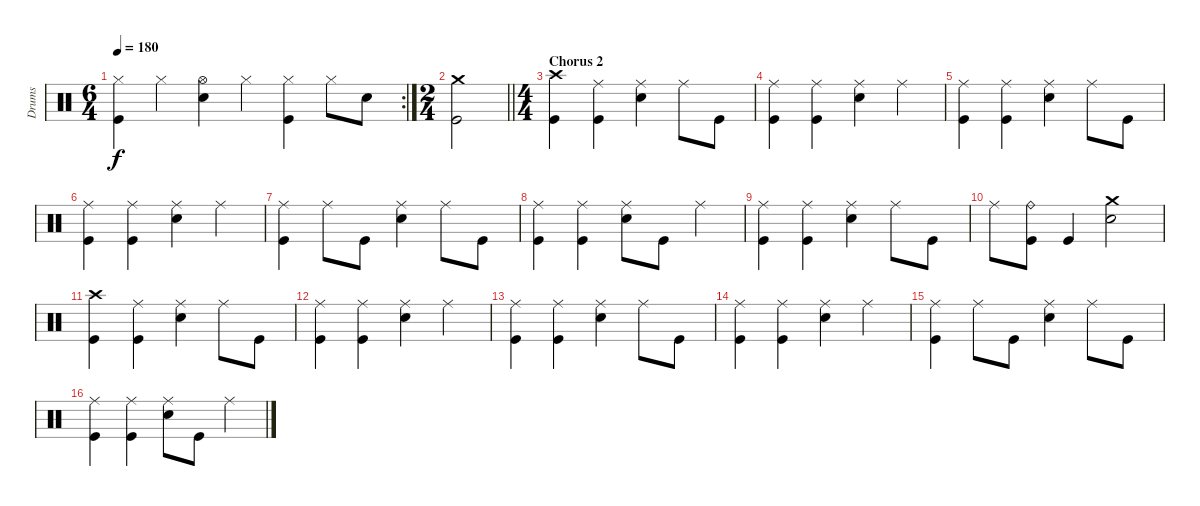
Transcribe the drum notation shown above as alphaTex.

\track ("Drums" "Drums") {instrument percussion}
\staff {score}
\articulation defaults
\rc 2
\ts (6 4)
\tempo 180
\clef neutral
\ks c
("Hi-Hat (closed)" "Kick (hit)").4{dy f} "Hi-Hat (closed)".4 ("Hi-Hat (open)" "Snare (hit) 2").4 "Hi-Hat (closed)".4 ("Hi-Hat (closed)" "Kick (hit)").4 "Hi-Hat (closed)".8 "Snare (hit) 2".8 |
\ts (2 4)
\barLineRight lightlight
("Crash medium (hit)" "Kick (hit)").2 |
\ts (4 4)
\section ("" "Chorus 2")
("Crash high (hit)" "Kick (hit)").4 ("Ride (middle)" "Kick (hit)").4 ("Ride (middle)" "Snare (hit) 2").4 "Ride (middle)".8 "Kick (hit)".8 |
("Ride (middle)" "Kick (hit)").4 ("Ride (middle)" "Kick (hit)").4 ("Ride (middle)" "Snare (hit) 2").4 "Ride (middle)".4 |
("Ride (middle)" "Kick (hit)").4 ("Ride (middle)" "Kick (hit)").4 ("Ride (middle)" "Snare (hit) 2").4 "Ride (middle)".8 "Kick (hit)".8 |
("Ride (middle)" "Kick (hit)").4 ("Ride (middle)" "Kick (hit)").4 ("Ride (middle)" "Snare (hit) 2").4 "Ride (middle)".4 |
("Ride (middle)" "Kick (hit)").4 "Ride (middle)".8 "Kick (hit)".8 ("Ride (middle)" "Snare (hit) 2").4 "Ride (middle)".8 "Kick (hit)".8 |
("Ride (middle)" "Kick (hit)").4 ("Ride (middle)" "Kick (hit)").4 ("Ride (middle)" "Snare (hit) 2").8 "Kick (hit)".8 "Ride (middle)".4 |
("Ride (middle)" "Kick (hit)").4 ("Ride (middle)" "Kick (hit)").4 ("Ride (middle)" "Snare (hit) 2").4 "Ride (middle)".8 "Kick (hit)".8 |
"Ride (middle)".8 ("Ride (bell)" "Kick (hit)").8 "Kick (hit)".4 ("Crash medium (hit)" "Snare (hit) 2").2 |
("Crash high (hit)" "Kick (hit)").4 ("Ride (middle)" "Kick (hit)").4 ("Ride (middle)" "Snare (hit) 2").4 "Ride (middle)".8 "Kick (hit)".8 |
("Ride (middle)" "Kick (hit)").4 ("Ride (middle)" "Kick (hit)").4 ("Ride (middle)" "Snare (hit) 2").4 "Ride (middle)".4 |
("Ride (middle)" "Kick (hit)").4 ("Ride (middle)" "Kick (hit)").4 ("Ride (middle)" "Snare (hit) 2").4 "Ride (middle)".8 "Kick (hit)".8 |
("Ride (middle)" "Kick (hit)").4 ("Ride (middle)" "Kick (hit)").4 ("Ride (middle)" "Snare (hit) 2").4 "Ride (middle)".4 |
("Ride (middle)" "Kick (hit)").4 "Ride (middle)".8 "Kick (hit)".8 ("Ride (middle)" "Snare (hit) 2").4 "Ride (middle)".8 "Kick (hit)".8 |
("Ride (middle)" "Kick (hit)").4 ("Ride (middle)" "Kick (hit)").4 ("Ride (middle)" "Snare (hit) 2").8 "Kick (hit)".8 "Ride (middle)".4
